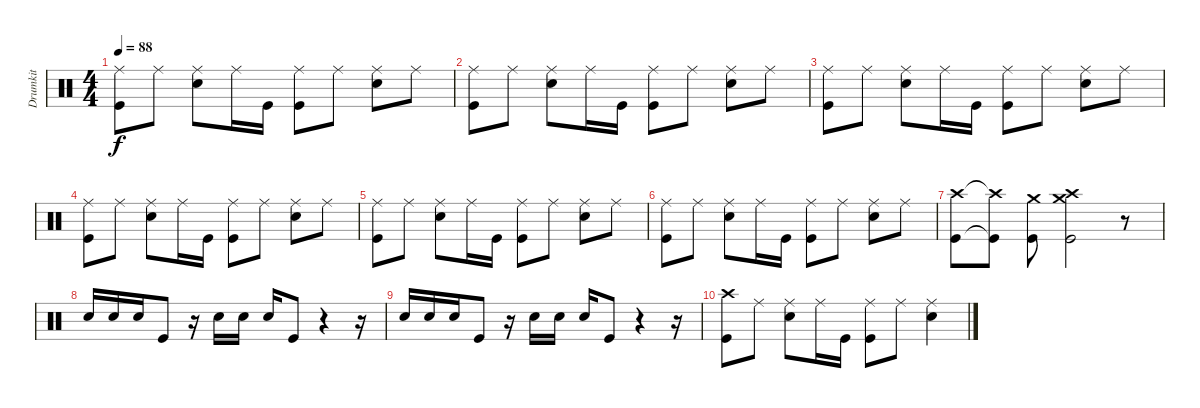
\track ("Drumkit" "Drumkit") {instrument percussion}
\staff {score}
\articulation defaults
\ts (4 4)
\tempo 88
\clef neutral
\ks c
("Ride (middle)" "Kick (hit)").8{dy f} "Ride (middle)".8 ("Ride (middle)" "Snare (hit) 2").8 "Ride (middle)".16 "Kick (hit)".16 ("Ride (middle)" "Kick (hit)").8 "Ride (middle)".8 ("Ride (middle)" "Snare (hit) 2").8 "Ride (middle)".8 |
("Ride (middle)" "Kick (hit)").8 "Ride (middle)".8 ("Ride (middle)" "Snare (hit) 2").8 "Ride (middle)".16 "Kick (hit)".16 ("Ride (middle)" "Kick (hit)").8 "Ride (middle)".8 ("Ride (middle)" "Snare (hit) 2").8 "Ride (middle)".8 |
("Ride (middle)" "Kick (hit)").8 "Ride (middle)".8 ("Ride (middle)" "Snare (hit) 2").8 "Ride (middle)".16 "Kick (hit)".16 ("Ride (middle)" "Kick (hit)").8 "Ride (middle)".8 ("Ride (middle)" "Snare (hit) 2").8 "Ride (middle)".8 |
("Ride (middle)" "Kick (hit)").8 "Ride (middle)".8 ("Ride (middle)" "Snare (hit) 2").8 "Ride (middle)".16 "Kick (hit)".16 ("Ride (middle)" "Kick (hit)").8 "Ride (middle)".8 ("Ride (middle)" "Snare (hit) 2").8 "Ride (middle)".8 |
("Ride (middle)" "Kick (hit)").8 "Ride (middle)".8 ("Ride (middle)" "Snare (hit) 2").8 "Ride (middle)".16 "Kick (hit)".16 ("Ride (middle)" "Kick (hit)").8 "Ride (middle)".8 ("Ride (middle)" "Snare (hit) 2").8 "Ride (middle)".8 |
("Ride (middle)" "Kick (hit)").8 "Ride (middle)".8 ("Ride (middle)" "Snare (hit) 2").8 "Ride (middle)".16 "Kick (hit)".16 ("Ride (middle)" "Kick (hit)").8 "Ride (middle)".8 ("Ride (middle)" "Snare (hit) 2").8 "Ride (middle)".8 |
("Crash high (hit)" "Kick (hit)").8 ("Crash high (hit)"{t} "Kick (hit)"{t}).8 ("Crash medium (hit)" "Kick (hit)").8 ("Crash medium (hit)" "Crash high (hit)" "Kick (hit)").2 r.8 |
"Snare (hit) 2".16 "Snare (hit) 2".16 "Snare (hit) 2".16 "Kick (hit)".8 r.16 "Snare (hit) 2".16 "Snare (hit) 2".16 "Snare (hit) 2".16 "Kick (hit)".8 r.4 r.16 |
"Snare (hit) 2".16 "Snare (hit) 2".16 "Snare (hit) 2".16 "Kick (hit)".8 r.16 "Snare (hit) 2".16 "Snare (hit) 2".16 "Snare (hit) 2".16 "Kick (hit)".8 r.4 r.16 |
("Crash high (hit)" "Kick (hit)").8 "Ride (middle)".8 ("Ride (middle)" "Snare (hit) 2").8 "Ride (middle)".16 "Kick (hit)".16 ("Ride (middle)" "Kick (hit)").8 "Ride (middle)".8 ("Ride (middle)" "Snare (hit) 2").4
